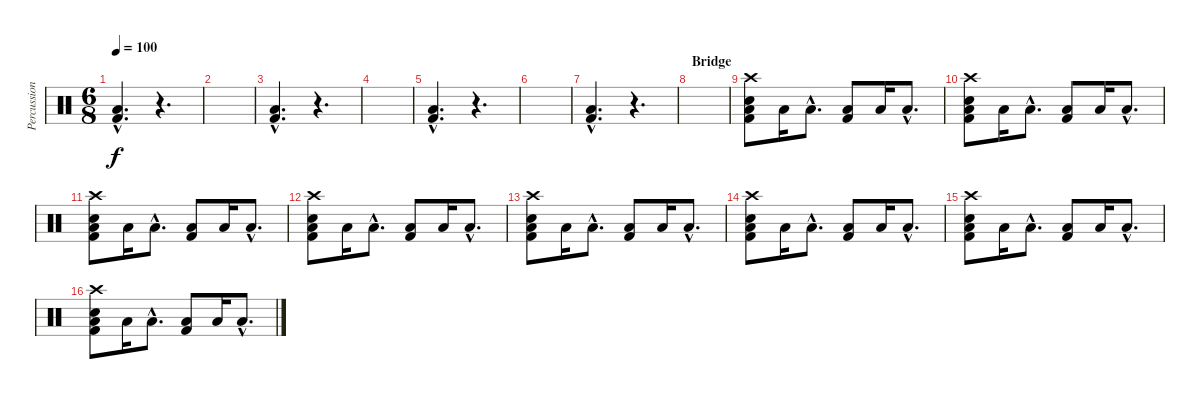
\track ("Percussion" "Percussion") {instrument percussion}
\staff {score}
\articulation defaults
\ts (6 8)
\tempo 100
\clef neutral
\ks c
("Low Floor Tom (hit)"{hac} "Kick (hit) 2"{hac}).4{d dy f} r.4{d} |
|
("Low Floor Tom (hit)"{hac} "Kick (hit) 2"{hac}).4{d} r.4{d} |
|
("Low Floor Tom (hit)"{hac} "Kick (hit) 2"{hac}).4{d} r.4{d} |
|
("Low Floor Tom (hit)"{hac} "Kick (hit) 2"{hac}).4{d} r.4{d} |
\section ("" "Bridge")
|
("Crash high (hit)" "Electric Snare (hit)" "Low Floor Tom (hit)" "Kick (hit) 2").8 "Low Floor Tom (hit)".16 "Low Floor Tom (hit)"{hac}.8{d} ("Low Floor Tom (hit)" "Kick (hit) 2").8 "Low Floor Tom (hit)".16 "Low Floor Tom (hit)"{hac}.8{d} |
("Crash high (hit)" "Electric Snare (hit)" "Low Floor Tom (hit)" "Kick (hit) 2").8 "Low Floor Tom (hit)".16 "Low Floor Tom (hit)"{hac}.8{d} ("Low Floor Tom (hit)" "Kick (hit) 2").8 "Low Floor Tom (hit)".16 "Low Floor Tom (hit)"{hac}.8{d} |
("Crash high (hit)" "Electric Snare (hit)" "Low Floor Tom (hit)" "Kick (hit) 2").8 "Low Floor Tom (hit)".16 "Low Floor Tom (hit)"{hac}.8{d} ("Low Floor Tom (hit)" "Kick (hit) 2").8 "Low Floor Tom (hit)".16 "Low Floor Tom (hit)"{hac}.8{d} |
("Crash high (hit)" "Electric Snare (hit)" "Low Floor Tom (hit)" "Kick (hit) 2").8 "Low Floor Tom (hit)".16 "Low Floor Tom (hit)"{hac}.8{d} ("Low Floor Tom (hit)" "Kick (hit) 2").8 "Low Floor Tom (hit)".16 "Low Floor Tom (hit)"{hac}.8{d} |
("Crash high (hit)" "Electric Snare (hit)" "Low Floor Tom (hit)" "Kick (hit) 2").8 "Low Floor Tom (hit)".16 "Low Floor Tom (hit)"{hac}.8{d} ("Low Floor Tom (hit)" "Kick (hit) 2").8 "Low Floor Tom (hit)".16 "Low Floor Tom (hit)"{hac}.8{d} |
("Crash high (hit)" "Electric Snare (hit)" "Low Floor Tom (hit)" "Kick (hit) 2").8 "Low Floor Tom (hit)".16 "Low Floor Tom (hit)"{hac}.8{d} ("Low Floor Tom (hit)" "Kick (hit) 2").8 "Low Floor Tom (hit)".16 "Low Floor Tom (hit)"{hac}.8{d} |
("Crash high (hit)" "Electric Snare (hit)" "Low Floor Tom (hit)" "Kick (hit) 2").8 "Low Floor Tom (hit)".16 "Low Floor Tom (hit)"{hac}.8{d} ("Low Floor Tom (hit)" "Kick (hit) 2").8 "Low Floor Tom (hit)".16 "Low Floor Tom (hit)"{hac}.8{d} |
("Crash high (hit)" "Electric Snare (hit)" "Low Floor Tom (hit)" "Kick (hit) 2").8 "Low Floor Tom (hit)".16 "Low Floor Tom (hit)"{hac}.8{d} ("Low Floor Tom (hit)" "Kick (hit) 2").8 "Low Floor Tom (hit)".16 "Low Floor Tom (hit)"{hac}.8{d}
